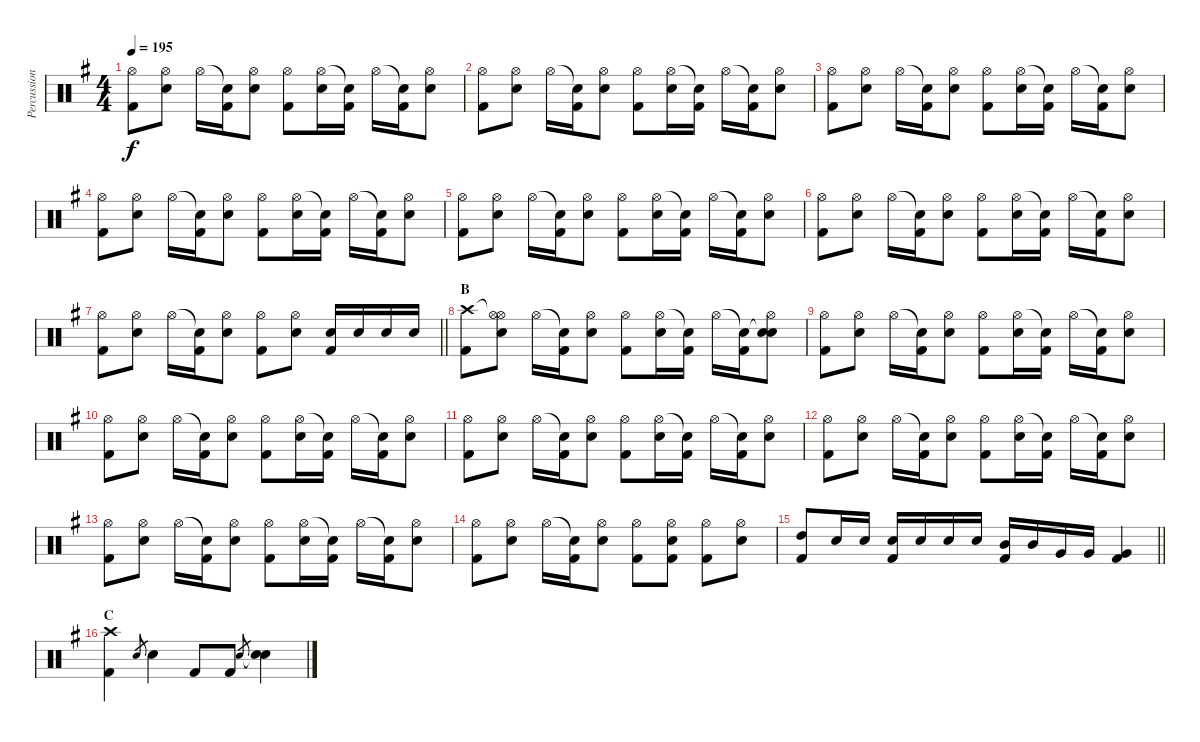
\track ("Percussion" "Percussion") {instrument percussion}
\staff {score}
\articulation defaults
\ts (4 4)
\tempo 195
\clef neutral
\ks g
("Hi-Hat (open)" "Kick (hit) 2").8{dy f} ("Hi-Hat (open)" "Electric Snare (hit)").8 "Hi-Hat (open)".16 ("Snare (hit)"{t} "Kick (hit) 2").16 ("Hi-Hat (open)" "Electric Snare (hit)").8 ("Hi-Hat (open)" "Kick (hit) 2").8 ("Hi-Hat (open)" "Electric Snare (hit)").16 ("Snare (hit)"{t} "Kick (hit) 2").16 "Hi-Hat (open)".16 ("Snare (hit)"{t} "Kick (hit) 2").16 ("Hi-Hat (open)" "Electric Snare (hit)").8 |
("Hi-Hat (open)" "Kick (hit) 2").8 ("Hi-Hat (open)" "Electric Snare (hit)").8 "Hi-Hat (open)".16 ("Snare (hit)"{t} "Kick (hit) 2").16 ("Hi-Hat (open)" "Electric Snare (hit)").8 ("Hi-Hat (open)" "Kick (hit) 2").8 ("Hi-Hat (open)" "Electric Snare (hit)").16 ("Snare (hit)"{t} "Kick (hit) 2").16 "Hi-Hat (open)".16 ("Snare (hit)"{t} "Kick (hit) 2").16 ("Hi-Hat (open)" "Electric Snare (hit)").8 |
("Hi-Hat (open)" "Kick (hit) 2").8 ("Hi-Hat (open)" "Electric Snare (hit)").8 "Hi-Hat (open)".16 ("Snare (hit)"{t} "Kick (hit) 2").16 ("Hi-Hat (open)" "Electric Snare (hit)").8 ("Hi-Hat (open)" "Kick (hit) 2").8 ("Hi-Hat (open)" "Electric Snare (hit)").16 ("Snare (hit)"{t} "Kick (hit) 2").16 "Hi-Hat (open)".16 ("Snare (hit)"{t} "Kick (hit) 2").16 ("Hi-Hat (open)" "Electric Snare (hit)").8 |
("Hi-Hat (open)" "Kick (hit) 2").8 ("Hi-Hat (open)" "Electric Snare (hit)").8 "Hi-Hat (open)".16 ("Snare (hit)"{t} "Kick (hit) 2").16 ("Hi-Hat (open)" "Electric Snare (hit)").8 ("Hi-Hat (open)" "Kick (hit) 2").8 ("Hi-Hat (open)" "Electric Snare (hit)").16 ("Snare (hit)"{t} "Kick (hit) 2").16 "Hi-Hat (open)".16 ("Snare (hit)"{t} "Kick (hit) 2").16 ("Hi-Hat (open)" "Electric Snare (hit)").8 |
("Hi-Hat (open)" "Kick (hit) 2").8 ("Hi-Hat (open)" "Electric Snare (hit)").8 "Hi-Hat (open)".16 ("Snare (hit)"{t} "Kick (hit) 2").16 ("Hi-Hat (open)" "Electric Snare (hit)").8 ("Hi-Hat (open)" "Kick (hit) 2").8 ("Hi-Hat (open)" "Electric Snare (hit)").16 ("Snare (hit)"{t} "Kick (hit) 2").16 "Hi-Hat (open)".16 ("Snare (hit)"{t} "Kick (hit) 2").16 ("Hi-Hat (open)" "Electric Snare (hit)").8 |
("Hi-Hat (open)" "Kick (hit) 2").8 ("Hi-Hat (open)" "Electric Snare (hit)").8 "Hi-Hat (open)".16 ("Snare (hit)"{t} "Kick (hit) 2").16 ("Hi-Hat (open)" "Electric Snare (hit)").8 ("Hi-Hat (open)" "Kick (hit) 2").8 ("Hi-Hat (open)" "Electric Snare (hit)").16 ("Snare (hit)"{t} "Kick (hit) 2").16 "Hi-Hat (open)".16 ("Snare (hit)"{t} "Kick (hit) 2").16 ("Hi-Hat (open)" "Electric Snare (hit)").8 |
\barLineRight lightlight
("Hi-Hat (open)" "Kick (hit) 2").8 ("Hi-Hat (open)" "Electric Snare (hit)").8 "Hi-Hat (open)".16 ("Snare (hit)"{t} "Kick (hit) 2").16 ("Hi-Hat (open)" "Electric Snare (hit)").8 ("Hi-Hat (open)" "Kick (hit) 2").8 ("Hi-Hat (open)" "Electric Snare (hit)").8 ("Electric Snare (hit)" "Kick (hit) 2").16 "Electric Snare (hit)".16 "Electric Snare (hit)".16 "Electric Snare (hit)".16 |
\section ("" "B")
("Crash high (hit)" "Kick (hit) 2").8 ("Hi-Hat (open)"{t} "Hi-Hat (open)" "Electric Snare (hit)").8 "Hi-Hat (open)".16 ("Snare (hit)"{t} "Kick (hit) 2").16 ("Hi-Hat (open)" "Electric Snare (hit)").8 ("Hi-Hat (open)" "Kick (hit) 2").8 ("Hi-Hat (open)" "Electric Snare (hit)").16 ("Snare (hit)"{t} "Kick (hit) 2").16 "Hi-Hat (open)".16 ("Snare (hit)"{t} "Kick (hit) 2").16 ("Snare (hit)"{t} "Hi-Hat (open)" "Electric Snare (hit)").8 |
("Hi-Hat (open)" "Kick (hit) 2").8 ("Hi-Hat (open)" "Electric Snare (hit)").8 "Hi-Hat (open)".16 ("Snare (hit)"{t} "Kick (hit) 2").16 ("Hi-Hat (open)" "Electric Snare (hit)").8 ("Hi-Hat (open)" "Kick (hit) 2").8 ("Hi-Hat (open)" "Electric Snare (hit)").16 ("Snare (hit)"{t} "Kick (hit) 2").16 "Hi-Hat (open)".16 ("Snare (hit)"{t} "Kick (hit) 2").16 ("Hi-Hat (open)" "Electric Snare (hit)").8 |
("Hi-Hat (open)" "Kick (hit) 2").8 ("Hi-Hat (open)" "Electric Snare (hit)").8 "Hi-Hat (open)".16 ("Snare (hit)"{t} "Kick (hit) 2").16 ("Hi-Hat (open)" "Electric Snare (hit)").8 ("Hi-Hat (open)" "Kick (hit) 2").8 ("Hi-Hat (open)" "Electric Snare (hit)").16 ("Snare (hit)"{t} "Kick (hit) 2").16 "Hi-Hat (open)".16 ("Snare (hit)"{t} "Kick (hit) 2").16 ("Hi-Hat (open)" "Electric Snare (hit)").8 |
("Hi-Hat (open)" "Kick (hit) 2").8 ("Hi-Hat (open)" "Electric Snare (hit)").8 "Hi-Hat (open)".16 ("Snare (hit)"{t} "Kick (hit) 2").16 ("Hi-Hat (open)" "Electric Snare (hit)").8 ("Hi-Hat (open)" "Kick (hit) 2").8 ("Hi-Hat (open)" "Electric Snare (hit)").16 ("Snare (hit)"{t} "Kick (hit) 2").16 "Hi-Hat (open)".16 ("Snare (hit)"{t} "Kick (hit) 2").16 ("Hi-Hat (open)" "Electric Snare (hit)").8 |
("Hi-Hat (open)" "Kick (hit) 2").8 ("Hi-Hat (open)" "Electric Snare (hit)").8 "Hi-Hat (open)".16 ("Snare (hit)"{t} "Kick (hit) 2").16 ("Hi-Hat (open)" "Electric Snare (hit)").8 ("Hi-Hat (open)" "Kick (hit) 2").8 ("Hi-Hat (open)" "Electric Snare (hit)").16 ("Snare (hit)"{t} "Kick (hit) 2").16 "Hi-Hat (open)".16 ("Snare (hit)"{t} "Kick (hit) 2").16 ("Hi-Hat (open)" "Electric Snare (hit)").8 |
("Hi-Hat (open)" "Kick (hit) 2").8 ("Hi-Hat (open)" "Electric Snare (hit)").8 "Hi-Hat (open)".16 ("Snare (hit)"{t} "Kick (hit) 2").16 ("Hi-Hat (open)" "Electric Snare (hit)").8 ("Hi-Hat (open)" "Kick (hit) 2").8 ("Hi-Hat (open)" "Electric Snare (hit)").16 ("Snare (hit)"{t} "Kick (hit) 2").16 "Hi-Hat (open)".16 ("Snare (hit)"{t} "Kick (hit) 2").16 ("Hi-Hat (open)" "Electric Snare (hit)").8 |
("Hi-Hat (open)" "Kick (hit) 2").8 ("Hi-Hat (open)" "Electric Snare (hit)").8 "Hi-Hat (open)".16 ("Snare (hit)"{t} "Kick (hit) 2").16 ("Hi-Hat (open)" "Electric Snare (hit)").8 ("Hi-Hat (open)" "Kick (hit) 2").8 ("Hi-Hat (open)" "Electric Snare (hit)" "Kick (hit) 2").8 ("Hi-Hat (open)" "Kick (hit) 2").8 ("Hi-Hat (open)" "Electric Snare (hit)").8 |
\barLineRight lightlight
("High Tom (hit)" "Kick (hit) 2").8 "Electric Snare (hit)".16 "Electric Snare (hit)".16 ("Electric Snare (hit)" "Kick (hit) 2").16 "Electric Snare (hit)".16 "Electric Snare (hit)".16 "Electric Snare (hit)".16 ("Mid Tom (hit)" "Kick (hit) 2").16 "Mid Tom (hit)".16 "Very Low Tom (hit)".16 "Very Low Tom (hit)".16 ("Very Low Tom (hit)" "Kick (hit) 2").4 |
\section ("" "C")
("Crash high (hit)" "Kick (hit) 2").4 "Electric Snare (hit)".8{gr} "Electric Snare (hit)".4 "Kick (hit) 2".8 "Kick (hit) 2".8 "Electric Snare (hit)".8{gr} ("Snare (hit)"{t} "Electric Snare (hit)").4
